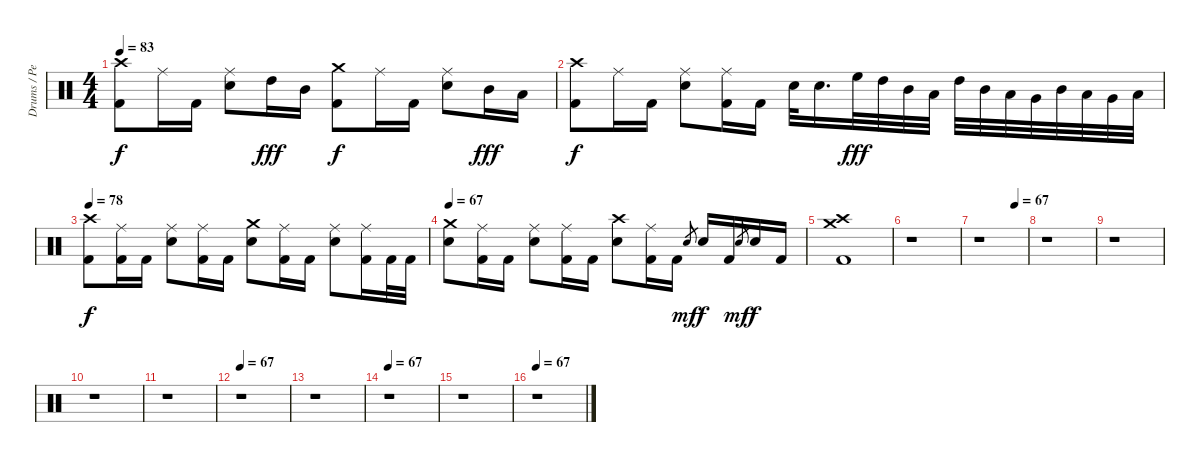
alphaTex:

\track ("Drums / Percussion" "Drums / Pe") {instrument percussion}
\staff {score}
\articulation defaults
\ts (4 4)
\tempo 83
\clef neutral
\ks c
("Crash high (hit)" "Kick (hit) 2").8{dy f} "Ride (middle)".16 "Kick (hit) 2".16 ("Ride (middle)" "Snare (hit) 2").8 "High Tom (hit)".16{dy fff} "Mid Tom (hit)".16 ("Crash medium (hit)" "Kick (hit) 2").8{dy f} "Ride (middle)".16 "Kick (hit) 2".16 ("Ride (middle)" "Snare (hit) 2").8 "Mid Tom (hit)".16{dy fff} "Low Tom (hit)".16 |
("Crash high (hit)" "Kick (hit) 2").8{dy f} "Ride (middle)".16 "Kick (hit) 2".16 ("Ride (middle)" "Snare (hit) 2").8 ("Ride (middle)" "Kick (hit) 2").16 "Kick (hit) 2".16 "Snare (hit) 2".32 "Snare (hit) 2".16{d} "High Floor Tom (hit)".32{dy fff} "High Tom (hit)".32 "Mid Tom (hit)".32 "Low Tom (hit)".32 "High Tom (hit)".32 "Mid Tom (hit)".32 "Low Tom (hit)".32 "Very Low Tom (hit)".32 "Mid Tom (hit)".32 "Low Tom (hit)".32 "Very Low Tom (hit)".32 "Low Floor Tom (hit)".32 |
\tempo 78
("Crash high (hit)" "Kick (hit) 2").8{dy f} ("Ride (middle)" "Kick (hit) 2").16 "Kick (hit) 2".16 ("Ride (middle)" "Snare (hit) 2").8 ("Ride (middle)" "Kick (hit) 2").16 "Kick (hit) 2".16 ("Crash medium (hit)" "Snare (hit) 2").8 ("Ride (middle)" "Kick (hit) 2").16 "Kick (hit) 2".16 ("Ride (middle)" "Snare (hit) 2").8 ("Ride (middle)" "Kick (hit) 2").16 "Kick (hit) 2".32 "Kick (hit) 2".32 |
\tempo 67
("Crash medium (hit)" "Snare (hit) 2").8 ("Ride (middle)" "Kick (hit) 2").16 "Kick (hit) 2".16 ("Ride (middle)" "Snare (hit) 2").8 ("Ride (middle)" "Kick (hit) 2").16 "Kick (hit) 2".16 ("Crash high (hit)" "Snare (hit) 2").8 ("Ride (middle)" "Kick (hit) 2").16 "Kick (hit) 2".16 "Snare (hit) 2".8{gr dy mf} "Snare (hit) 2".16{dy f} "Kick (hit) 2".16 "Snare (hit) 2".8{gr dy mf} "Snare (hit) 2".16{dy f} "Kick (hit) 2".16 |
\section ("" "")
("Crash medium (hit)" "Crash high (hit)" "Kick (hit) 2").1 |
r.1 |
\section ("" "")
\tempo (67 0.75)
r.1 |
r.1 |
r.1 |
r.1 |
r.1 |
\tempo 67
r.1 |
r.1 |
\tempo 67
r.1 |
r.1 |
\tempo 67
r.1
